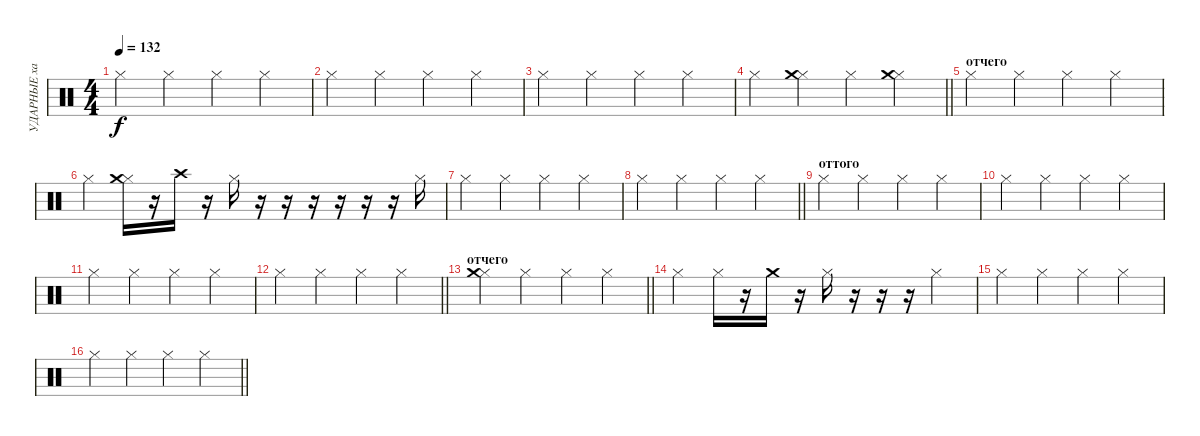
\track ("УДАРНЫЕ хай хэт" "УДАРНЫЕ ха") {instrument percussion}
\staff {score}
\articulation defaults
\ts (4 4)
\tempo 132
\clef neutral
\ks c "Hi-Hat (closed)".4{dy f} "Hi-Hat (closed)".4 "Hi-Hat (closed)".4 "Hi-Hat (closed)".4
|
"Hi-Hat (closed)".4 "Hi-Hat (closed)".4 "Hi-Hat (closed)".4 "Hi-Hat (closed)".4 |
"Hi-Hat (closed)".4 "Hi-Hat (closed)".4 "Hi-Hat (closed)".4 "Hi-Hat (closed)".4 |
\barLineRight lightlight "Hi-Hat (closed)".4
("Hi-Hat (closed)" "Crash medium (hit)").4 "Hi-Hat (closed)".4 ("Hi-Hat (closed)" "Crash medium (hit)").4 |
\section ("" "отчего")
"Hi-Hat (closed)".4 "Hi-Hat (closed)".4 "Hi-Hat (closed)".4 "Hi-Hat (closed)".4 |
"Hi-Hat (closed)".4 ("Hi-Hat (closed)" "Crash medium (hit)").16 r.16 "Crash high (hit)".16 r.16 "Hi-Hat (closed)".16 r.16 r.16 r.16 r.16 r.16 r.16 "Hi-Hat (closed)".16 |
"Hi-Hat (closed)".4 "Hi-Hat (closed)".4 "Hi-Hat (closed)".4 "Hi-Hat (closed)".4 |
\barLineRight lightlight "Hi-Hat (closed)".4 "Hi-Hat (closed)".4 "Hi-Hat (closed)".4 "Hi-Hat (closed)".4
|
\section ("" "оттого")
"Hi-Hat (closed)".4 "Hi-Hat (closed)".4 "Hi-Hat (closed)".4 "Hi-Hat (closed)".4 |
"Hi-Hat (closed)".4 "Hi-Hat (closed)".4 "Hi-Hat (closed)".4 "Hi-Hat (closed)".4 |
"Hi-Hat (closed)".4 "Hi-Hat (closed)".4 "Hi-Hat (closed)".4 "Hi-Hat (closed)".4 |
\barLineRight lightlight "Hi-Hat (closed)".4 "Hi-Hat (closed)".4 "Hi-Hat (closed)".4 "Hi-Hat (closed)".4
|
\section ("" "отчего")
\barLineRight lightlight
("Hi-Hat (closed)" "Crash medium (hit)").4 "Hi-Hat (closed)".4 "Hi-Hat (closed)".4 "Hi-Hat (closed)".4 |
"Hi-Hat (closed)".4 "Hi-Hat (closed)".16 r.16 "Crash medium (hit)".16 r.16 "Hi-Hat (closed)".16 r.16 r.16 r.16 "Hi-Hat (closed)".4 |
"Hi-Hat (closed)".4 "Hi-Hat (closed)".4 "Hi-Hat (closed)".4 "Hi-Hat (closed)".4 |
\barLineRight lightlight "Hi-Hat (closed)".4 "Hi-Hat (closed)".4 "Hi-Hat (closed)".4 "Hi-Hat (closed)".4
